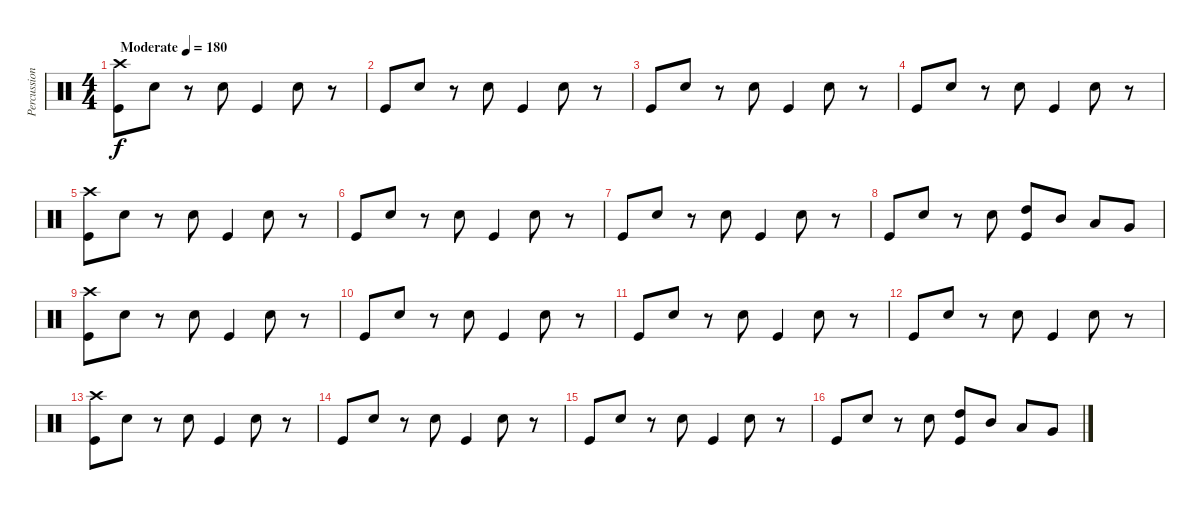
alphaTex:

\track ("Percussion" "Percussion") {instrument percussion}
\staff {score}
\articulation defaults
\ts (4 4)
\tempo (180 "Moderate")
\clef neutral
\ks c
("Crash high (hit)" "Kick (hit)").8{dy f} "Snare (hit) 2".8 r.8 "Snare (hit) 2".8 "Kick (hit)".4 "Snare (hit) 2".8 r.8 |
"Kick (hit)".8 "Snare (hit) 2".8 r.8 "Snare (hit) 2".8 "Kick (hit)".4 "Snare (hit) 2".8 r.8 |
"Kick (hit)".8 "Snare (hit) 2".8 r.8 "Snare (hit) 2".8 "Kick (hit)".4 "Snare (hit) 2".8 r.8 |
"Kick (hit)".8 "Snare (hit) 2".8 r.8 "Snare (hit) 2".8 "Kick (hit)".4 "Snare (hit) 2".8 r.8 |
("Crash high (hit)" "Kick (hit)").8 "Snare (hit) 2".8 r.8 "Snare (hit) 2".8 "Kick (hit)".4 "Snare (hit) 2".8 r.8 |
"Kick (hit)".8 "Snare (hit) 2".8 r.8 "Snare (hit) 2".8 "Kick (hit)".4 "Snare (hit) 2".8 r.8 |
"Kick (hit)".8 "Snare (hit) 2".8 r.8 "Snare (hit) 2".8 "Kick (hit)".4 "Snare (hit) 2".8 r.8 |
"Kick (hit)".8 "Snare (hit) 2".8 r.8 "Snare (hit) 2".8 ("High Tom (hit)" "Kick (hit)").8 "Mid Tom (hit)".8 "Low Tom (hit)".8 "Very Low Tom (hit)".8 |
("Crash high (hit)" "Kick (hit)").8 "Snare (hit) 2".8 r.8 "Snare (hit) 2".8 "Kick (hit)".4 "Snare (hit) 2".8 r.8 |
"Kick (hit)".8 "Snare (hit) 2".8 r.8 "Snare (hit) 2".8 "Kick (hit)".4 "Snare (hit) 2".8 r.8 |
"Kick (hit)".8 "Snare (hit) 2".8 r.8 "Snare (hit) 2".8 "Kick (hit)".4 "Snare (hit) 2".8 r.8 |
"Kick (hit)".8 "Snare (hit) 2".8 r.8 "Snare (hit) 2".8 "Kick (hit)".4 "Snare (hit) 2".8 r.8 |
("Crash high (hit)" "Kick (hit)").8 "Snare (hit) 2".8 r.8 "Snare (hit) 2".8 "Kick (hit)".4 "Snare (hit) 2".8 r.8 |
"Kick (hit)".8 "Snare (hit) 2".8 r.8 "Snare (hit) 2".8 "Kick (hit)".4 "Snare (hit) 2".8 r.8 |
"Kick (hit)".8 "Snare (hit) 2".8 r.8 "Snare (hit) 2".8 "Kick (hit)".4 "Snare (hit) 2".8 r.8 |
"Kick (hit)".8 "Snare (hit) 2".8 r.8 "Snare (hit) 2".8 ("High Tom (hit)" "Kick (hit)").8 "Mid Tom (hit)".8 "Low Tom (hit)".8 "Very Low Tom (hit)".8
